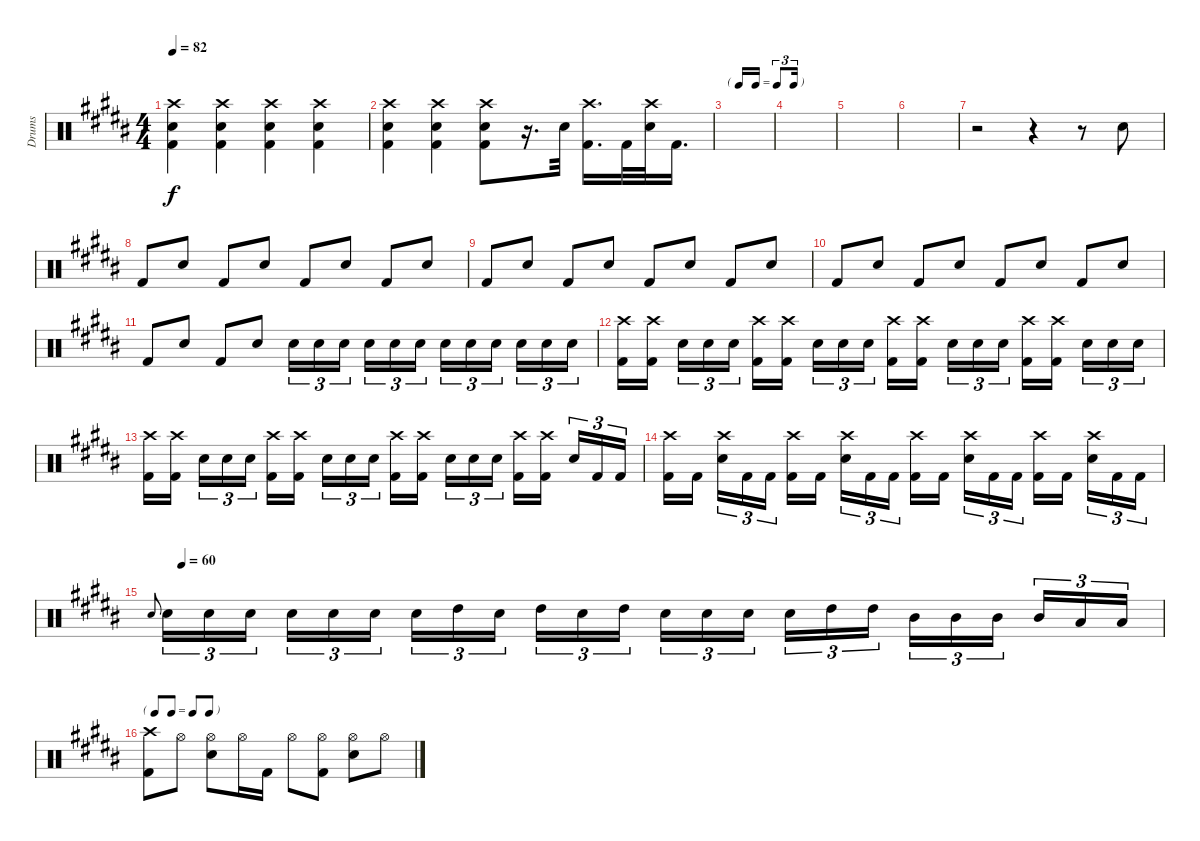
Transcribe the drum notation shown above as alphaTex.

\track ("Drums" "Drums") {instrument percussion}
\staff {score}
\articulation defaults
\ts (4 4)
\tempo 82
\clef neutral
\ks b
("Crash high (hit)" "Electric Snare (hit)" "Kick (hit) 2").4{dy f} ("Crash high (hit)" "Electric Snare (hit)" "Kick (hit) 2").4 ("Crash high (hit)" "Electric Snare (hit)" "Kick (hit) 2").4 ("Crash high (hit)" "Electric Snare (hit)" "Kick (hit) 2").4 |
("Crash high (hit)" "Electric Snare (hit)" "Kick (hit) 2").4 ("Crash high (hit)" "Electric Snare (hit)" "Kick (hit) 2").4 ("Crash high (hit)" "Electric Snare (hit)" "Kick (hit) 2").8 r.16{d} "Electric Snare (hit)".32 ("Crash high (hit)" "Kick (hit) 2").16{d} "Kick (hit) 2".32 ("Crash high (hit)" "Electric Snare (hit)").32 "Kick (hit) 2".16{d} |
\tf triplet16th
|
|
|
|
r.2 r.4 r.8 "Hand Clap (hit)".8 |
"Kick (hit) 2".8 "Hand Clap (hit)".8 "Kick (hit) 2".8 "Hand Clap (hit)".8 "Kick (hit) 2".8 "Hand Clap (hit)".8 "Kick (hit) 2".8 "Hand Clap (hit)".8 |
"Kick (hit) 2".8 "Hand Clap (hit)".8 "Kick (hit) 2".8 "Hand Clap (hit)".8 "Kick (hit) 2".8 "Hand Clap (hit)".8 "Kick (hit) 2".8 "Hand Clap (hit)".8 |
"Kick (hit) 2".8 "Hand Clap (hit)".8 "Kick (hit) 2".8 "Hand Clap (hit)".8 "Kick (hit) 2".8 "Hand Clap (hit)".8 "Kick (hit) 2".8 "Hand Clap (hit)".8 |
"Kick (hit) 2".8 "Hand Clap (hit)".8 "Kick (hit) 2".8 "Hand Clap (hit)".8 "Electric Snare (hit)".16{tu (3 2)} "Electric Snare (hit)".16{tu (3 2)} "Electric Snare (hit)".16{tu (3 2) beam splitsecondary} "Electric Snare (hit)".16{tu (3 2)} "Electric Snare (hit)".16{tu (3 2)} "Electric Snare (hit)".16{tu (3 2)} "Electric Snare (hit)".16{tu (3 2)} "Electric Snare (hit)".16{tu (3 2)} "Electric Snare (hit)".16{tu (3 2) beam splitsecondary} "Electric Snare (hit)".16{tu (3 2)} "Electric Snare (hit)".16{tu (3 2)} "Electric Snare (hit)".16{tu (3 2)} |
("Crash high (hit)" "Kick (hit) 2").16 ("Crash high (hit)" "Kick (hit) 2").16{beam splitsecondary} "Electric Snare (hit)".16{tu (3 2)} "Electric Snare (hit)".16{tu (3 2)} "Electric Snare (hit)".16{tu (3 2)} ("Crash high (hit)" "Kick (hit) 2").16 ("Crash high (hit)" "Kick (hit) 2").16{beam splitsecondary} "Electric Snare (hit)".16{tu (3 2)} "Electric Snare (hit)".16{tu (3 2)} "Electric Snare (hit)".16{tu (3 2)} ("Crash high (hit)" "Kick (hit) 2").16 ("Crash high (hit)" "Kick (hit) 2").16{beam splitsecondary} "Electric Snare (hit)".16{tu (3 2)} "Electric Snare (hit)".16{tu (3 2)} "Electric Snare (hit)".16{tu (3 2)} ("Crash high (hit)" "Kick (hit) 2").16 ("Crash high (hit)" "Kick (hit) 2").16{beam splitsecondary} "Electric Snare (hit)".16{tu (3 2)} "Electric Snare (hit)".16{tu (3 2)} "Electric Snare (hit)".16{tu (3 2)} |
("Crash high (hit)" "Kick (hit) 2").16 ("Crash high (hit)" "Kick (hit) 2").16{beam splitsecondary} "Electric Snare (hit)".16{tu (3 2)} "Electric Snare (hit)".16{tu (3 2)} "Electric Snare (hit)".16{tu (3 2)} ("Crash high (hit)" "Kick (hit) 2").16 ("Crash high (hit)" "Kick (hit) 2").16{beam splitsecondary} "Electric Snare (hit)".16{tu (3 2)} "Electric Snare (hit)".16{tu (3 2)} "Electric Snare (hit)".16{tu (3 2)} ("Crash high (hit)" "Kick (hit) 2").16 ("Crash high (hit)" "Kick (hit) 2").16{beam splitsecondary} "Electric Snare (hit)".16{tu (3 2)} "Electric Snare (hit)".16{tu (3 2)} "Electric Snare (hit)".16{tu (3 2)} ("Crash high (hit)" "Kick (hit) 2").16 ("Crash high (hit)" "Kick (hit) 2").16{beam splitsecondary} "Electric Snare (hit)".16{tu (3 2)} "Kick (hit) 2".16{tu (3 2)} "Kick (hit) 2".16{tu (3 2)} |
("Crash high (hit)" "Kick (hit) 2").16 "Kick (hit) 2".16{beam splitsecondary} ("Crash high (hit)" "Electric Snare (hit)").16{tu (3 2)} "Kick (hit) 2".16{tu (3 2)} "Kick (hit) 2".16{tu (3 2)} ("Crash high (hit)" "Kick (hit) 2").16 "Kick (hit) 2".16{beam splitsecondary} ("Crash high (hit)" "Electric Snare (hit)").16{tu (3 2)} "Kick (hit) 2".16{tu (3 2)} "Kick (hit) 2".16{tu (3 2)} ("Crash high (hit)" "Kick (hit) 2").16 "Kick (hit) 2".16{beam splitsecondary} ("Crash high (hit)" "Electric Snare (hit)").16{tu (3 2)} "Kick (hit) 2".16{tu (3 2)} "Kick (hit) 2".16{tu (3 2)} ("Crash high (hit)" "Kick (hit) 2").16 "Kick (hit) 2".16{beam splitsecondary} ("Crash high (hit)" "Electric Snare (hit)").16{tu (3 2)} "Kick (hit) 2".16{tu (3 2)} "Kick (hit) 2".16{tu (3 2)} |
\tempo (60 0.03125)
"Electric Snare (hit)".8{gr onbeat} "Electric Snare (hit)".16{tu (3 2)} "Electric Snare (hit)".16{tu (3 2)} "Electric Snare (hit)".16{tu (3 2) beam splitsecondary} "Electric Snare (hit)".16{tu (3 2)} "Electric Snare (hit)".16{tu (3 2)} "Electric Snare (hit)".16{tu (3 2)} "Electric Snare (hit)".16{tu (3 2)} "High Tom (hit)".16{tu (3 2)} "Electric Snare (hit)".16{tu (3 2) beam splitsecondary} "High Tom (hit)".16{tu (3 2)} "Electric Snare (hit)".16{tu (3 2)} "High Tom (hit)".16{tu (3 2)} "Electric Snare (hit)".16{tu (3 2)} "Electric Snare (hit)".16{tu (3 2)} "Electric Snare (hit)".16{tu (3 2) beam splitsecondary} "Electric Snare (hit)".16{tu (3 2)} "High Tom (hit)".16{tu (3 2)} "High Tom (hit)".16{tu (3 2)} "Mid Tom (hit)".16{tu (3 2)} "Mid Tom (hit)".16{tu (3 2)} "Mid Tom (hit)".16{tu (3 2) beam splitsecondary} "Mid Tom (hit)".16{tu (3 2)} "Low Tom (hit)".16{tu (3 2)} "Low Tom (hit)".16{tu (3 2)} |
\tf none
("Crash high (hit)" "Kick (hit) 2").8 "Hi-Hat (open)".8 ("Hi-Hat (open)" "Electric Snare (hit)").8 "Hi-Hat (open)".16 "Kick (hit) 2".16 "Hi-Hat (open)".8 ("Hi-Hat (open)" "Kick (hit) 2").8 ("Hi-Hat (open)" "Electric Snare (hit)").8 "Hi-Hat (open)".8
